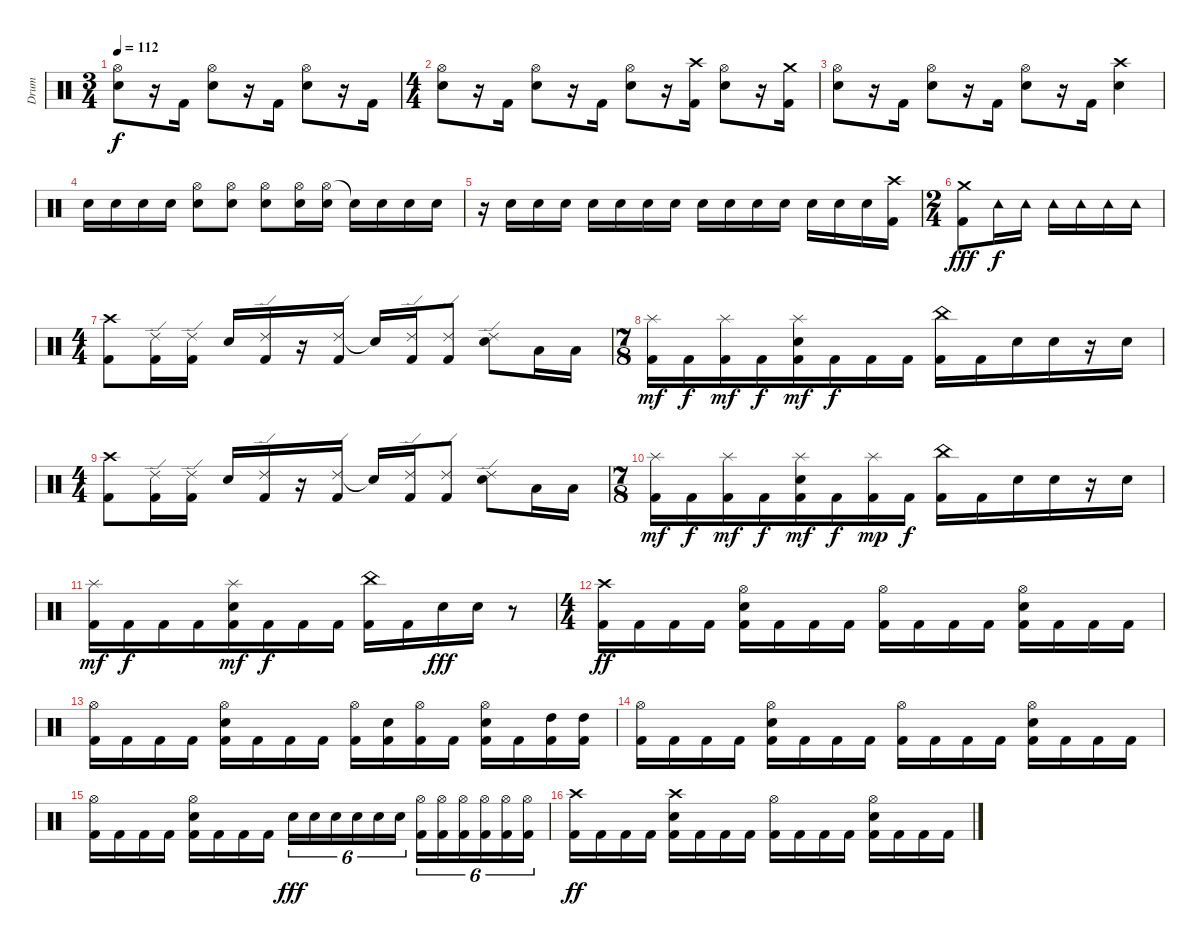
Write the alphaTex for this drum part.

\track ("Drum" "Drum") {instrument percussion}
\staff {score}
\articulation defaults
\ts (3 4)
\tempo 112
\clef neutral
\ks c
("Hi-Hat (open)" "Electric Snare (hit)").8{dy f} r.16 "Kick (hit) 2".16 ("Hi-Hat (open)" "Electric Snare (hit)").8 r.16 "Kick (hit) 2".16 ("Hi-Hat (open)" "Electric Snare (hit)").8 r.16 "Kick (hit) 2".16 |
\ts (4 4)
("Hi-Hat (open)" "Electric Snare (hit)").8 r.16 "Kick (hit) 2".16 ("Hi-Hat (open)" "Electric Snare (hit)").8 r.16 "Kick (hit) 2".16 ("Hi-Hat (open)" "Electric Snare (hit)").8 r.16 ("Crash high (hit)" "Kick (hit) 2").16 ("Hi-Hat (open)" "Electric Snare (hit)").8 r.16 ("Crash medium (hit)" "Kick (hit) 2").16 |
("Hi-Hat (open)" "Electric Snare (hit)").8 r.16 "Kick (hit) 2".16 ("Hi-Hat (open)" "Electric Snare (hit)").8 r.16 "Kick (hit) 2".16 ("Hi-Hat (open)" "Electric Snare (hit)").8 r.16 "Kick (hit) 2".16 ("Crash high (hit)" "Electric Snare (hit)").4 |
"Electric Snare (hit)".16 "Electric Snare (hit)".16 "Electric Snare (hit)".16 "Electric Snare (hit)".16 ("Hi-Hat (open)" "Electric Snare (hit)").8 ("Hi-Hat (open)" "Electric Snare (hit)").8 ("Hi-Hat (open)" "Electric Snare (hit)").8 ("Hi-Hat (open)" "Electric Snare (hit)").16 ("Hi-Hat (open)" "Electric Snare (hit)").16 "Snare (hit)"{t}.16 "Electric Snare (hit)".16 "Electric Snare (hit)".16 "Electric Snare (hit)".16 |
r.16 "Electric Snare (hit)".16 "Electric Snare (hit)".16 "Electric Snare (hit)".16 "Electric Snare (hit)".16 "Electric Snare (hit)".16 "Electric Snare (hit)".16 "Electric Snare (hit)".16 "Electric Snare (hit)".16 "Electric Snare (hit)".16 "Electric Snare (hit)".16 "Electric Snare (hit)".16 "Electric Snare (hit)".16 "Electric Snare (hit)".16 "Electric Snare (hit)".16 ("Crash high (hit)" "Kick (hit) 2").16 |
\ts (2 4)
("Crash medium (hit)" "Kick (hit) 2").8{dy fff} "Tambourine (hit)".16{dy f} "Tambourine (hit)".16 "Tambourine (hit)".16 "Tambourine (hit)".16 "Tambourine (hit)".16 "Tambourine (hit)".16 |
\ts (4 4)
("Crash high (hit)" "Kick (hit) 2").8 ("Ride (edge) 2" "Kick (hit) 2").16 ("Ride (edge) 2" "Kick (hit) 2").16 "Electric Snare (hit)".16 ("Ride (edge) 2" "Kick (hit) 2").16 r.16 ("Ride (edge) 2" "Kick (hit) 2").16 "Snare (hit)"{t}.16 ("Ride (edge) 2" "Kick (hit) 2").16 ("Ride (edge) 2" "Kick (hit) 2").8 ("Ride (edge) 2" "Electric Snare (hit)").8 "Low Tom (hit)".16 "Low Tom (hit)".16 |
\ts (7 8)
("Splash (hit)" "Kick (hit) 2").16{dy mf} "Kick (hit) 2".16{dy f} ("Splash (hit)" "Kick (hit) 2").16{dy mf} "Kick (hit) 2".16{dy f} ("Splash (hit)" "Electric Snare (hit)" "Kick (hit) 2").16{dy mf} "Kick (hit) 2".16{dy f} "Kick (hit) 2".16 "Kick (hit) 2".16 ("China (hit)" "Kick (hit) 2").16 "Kick (hit) 2".16 "Electric Snare (hit)".16 "Electric Snare (hit)".16 r.16 "Electric Snare (hit)".16 |
\ts (4 4)
("Crash high (hit)" "Kick (hit) 2").8 ("Ride (edge) 2" "Kick (hit) 2").16 ("Ride (edge) 2" "Kick (hit) 2").16 "Electric Snare (hit)".16 ("Ride (edge) 2" "Kick (hit) 2").16 r.16 ("Ride (edge) 2" "Kick (hit) 2").16 "Snare (hit)"{t}.16 ("Ride (edge) 2" "Kick (hit) 2").16 ("Ride (edge) 2" "Kick (hit) 2").8 ("Ride (edge) 2" "Electric Snare (hit)").8 "Low Tom (hit)".16 "Low Tom (hit)".16 |
\ts (7 8)
("Splash (hit)" "Kick (hit) 2").16{dy mf} "Kick (hit) 2".16{dy f} ("Splash (hit)" "Kick (hit) 2").16{dy mf} "Kick (hit) 2".16{dy f} ("Splash (hit)" "Electric Snare (hit)" "Kick (hit) 2").16{dy mf} "Kick (hit) 2".16{dy f} ("Splash (hit)" "Kick (hit) 2").16{dy mp} "Kick (hit) 2".16{dy f} ("China (hit)" "Kick (hit) 2").16 "Kick (hit) 2".16 "Electric Snare (hit)".16 "Electric Snare (hit)".16 r.16 "Electric Snare (hit)".16 |
("Splash (hit)" "Kick (hit) 2").16{dy mf} "Kick (hit) 2".16{dy f} "Kick (hit) 2".16 "Kick (hit) 2".16 ("Splash (hit)" "Electric Snare (hit)" "Kick (hit) 2").16{dy mf} "Kick (hit) 2".16{dy f} "Kick (hit) 2".16 "Kick (hit) 2".16 ("China (hit)" "Kick (hit) 2").16 "Kick (hit) 2".16 "Electric Snare (hit)".16{dy fff} "Electric Snare (hit)".16 r.8 |
\ts (4 4)
("Crash high (hit)" "Kick (hit) 2").16{dy ff} "Kick (hit) 2".16 "Kick (hit) 2".16 "Kick (hit) 2".16 ("Hi-Hat (open)" "Electric Snare (hit)" "Kick (hit) 2").16 "Kick (hit) 2".16 "Kick (hit) 2".16 "Kick (hit) 2".16 ("Hi-Hat (open)" "Kick (hit) 2").16 "Kick (hit) 2".16 "Kick (hit) 2".16 "Kick (hit) 2".16 ("Hi-Hat (open)" "Electric Snare (hit)" "Kick (hit) 2").16 "Kick (hit) 2".16 "Kick (hit) 2".16 "Kick (hit) 2".16 |
("Hi-Hat (open)" "Kick (hit) 2").16 "Kick (hit) 2".16 "Kick (hit) 2".16 "Kick (hit) 2".16 ("Hi-Hat (open)" "Electric Snare (hit)" "Kick (hit) 2").16 "Kick (hit) 2".16 "Kick (hit) 2".16 "Kick (hit) 2".16 ("Hi-Hat (open)" "Kick (hit) 2").16 ("Electric Snare (hit)" "Kick (hit) 2").16 ("Hi-Hat (open)" "Kick (hit) 2").16 "Kick (hit) 2".16 ("Hi-Hat (open)" "Electric Snare (hit)" "Kick (hit) 2").16 "Kick (hit) 2".16 ("High Tom (hit)" "Kick (hit) 2").16 ("High Tom (hit)" "Kick (hit) 2").16 |
("Hi-Hat (open)" "Kick (hit) 2").16 "Kick (hit) 2".16 "Kick (hit) 2".16 "Kick (hit) 2".16 ("Hi-Hat (open)" "Electric Snare (hit)" "Kick (hit) 2").16 "Kick (hit) 2".16 "Kick (hit) 2".16 "Kick (hit) 2".16 ("Hi-Hat (open)" "Kick (hit) 2").16 "Kick (hit) 2".16 "Kick (hit) 2".16 "Kick (hit) 2".16 ("Hi-Hat (open)" "Electric Snare (hit)" "Kick (hit) 2").16 "Kick (hit) 2".16 "Kick (hit) 2".16 "Kick (hit) 2".16 |
("Hi-Hat (open)" "Kick (hit) 2").16 "Kick (hit) 2".16 "Kick (hit) 2".16 "Kick (hit) 2".16 ("Hi-Hat (open)" "Electric Snare (hit)" "Kick (hit) 2").16 "Kick (hit) 2".16 "Kick (hit) 2".16 "Kick (hit) 2".16 "Electric Snare (hit)".16{tu (6 4) dy fff} "Electric Snare (hit)".16{tu (6 4)} "Electric Snare (hit)".16{tu (6 4)} "Electric Snare (hit)".16{tu (6 4)} "Electric Snare (hit)".16{tu (6 4)} "Electric Snare (hit)".16{tu (6 4)} ("Hi-Hat (open)" "Kick (hit) 2").16{tu (6 4)} ("Hi-Hat (open)" "Kick (hit) 2").16{tu (6 4)} ("Hi-Hat (open)" "Kick (hit) 2").16{tu (6 4)} ("Hi-Hat (open)" "Kick (hit) 2").16{tu (6 4)} ("Hi-Hat (open)" "Kick (hit) 2").16{tu (6 4)} ("Hi-Hat (open)" "Kick (hit) 2").16{tu (6 4)} |
("Crash high (hit)" "Kick (hit) 2").16{dy ff} "Kick (hit) 2".16 "Kick (hit) 2".16 "Kick (hit) 2".16 ("Crash high (hit)" "Electric Snare (hit)" "Kick (hit) 2").16 "Kick (hit) 2".16 "Kick (hit) 2".16 "Kick (hit) 2".16 ("Hi-Hat (open)" "Kick (hit) 2").16 "Kick (hit) 2".16 "Kick (hit) 2".16 "Kick (hit) 2".16 ("Hi-Hat (open)" "Electric Snare (hit)" "Kick (hit) 2").16 "Kick (hit) 2".16 "Kick (hit) 2".16 "Kick (hit) 2".16
